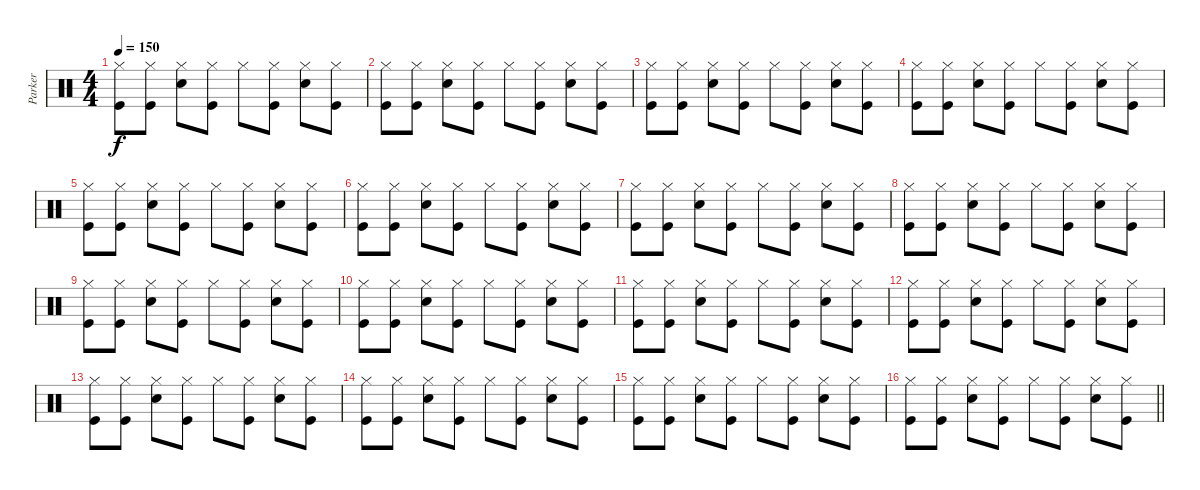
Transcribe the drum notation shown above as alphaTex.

\track ("Parker" "Parker") {instrument percussion}
\staff {score}
\articulation defaults
\ts (4 4)
\tempo 150
\clef neutral
\ks c
("Hi-Hat (closed)" "Kick (hit)").8{dy f} ("Hi-Hat (closed)" "Kick (hit)").8 ("Hi-Hat (closed)" "Electric Snare (hit)").8 ("Hi-Hat (closed)" "Kick (hit)").8 "Hi-Hat (closed)".8 ("Hi-Hat (closed)" "Kick (hit)").8 ("Hi-Hat (closed)" "Electric Snare (hit)").8 ("Hi-Hat (closed)" "Kick (hit)").8 |
("Hi-Hat (closed)" "Kick (hit)").8 ("Hi-Hat (closed)" "Kick (hit)").8 ("Hi-Hat (closed)" "Electric Snare (hit)").8 ("Hi-Hat (closed)" "Kick (hit)").8 "Hi-Hat (closed)".8 ("Hi-Hat (closed)" "Kick (hit)").8 ("Hi-Hat (closed)" "Electric Snare (hit)").8 ("Hi-Hat (closed)" "Kick (hit)").8 |
("Hi-Hat (closed)" "Kick (hit)").8 ("Hi-Hat (closed)" "Kick (hit)").8 ("Hi-Hat (closed)" "Electric Snare (hit)").8 ("Hi-Hat (closed)" "Kick (hit)").8 "Hi-Hat (closed)".8 ("Hi-Hat (closed)" "Kick (hit)").8 ("Hi-Hat (closed)" "Electric Snare (hit)").8 ("Hi-Hat (closed)" "Kick (hit)").8 |
("Hi-Hat (closed)" "Kick (hit)").8 ("Hi-Hat (closed)" "Kick (hit)").8 ("Hi-Hat (closed)" "Electric Snare (hit)").8 ("Hi-Hat (closed)" "Kick (hit)").8 "Hi-Hat (closed)".8 ("Hi-Hat (closed)" "Kick (hit)").8 ("Hi-Hat (closed)" "Electric Snare (hit)").8 ("Hi-Hat (closed)" "Kick (hit)").8 |
("Hi-Hat (closed)" "Kick (hit)").8 ("Hi-Hat (closed)" "Kick (hit)").8 ("Hi-Hat (closed)" "Electric Snare (hit)").8 ("Hi-Hat (closed)" "Kick (hit)").8 "Hi-Hat (closed)".8 ("Hi-Hat (closed)" "Kick (hit)").8 ("Hi-Hat (closed)" "Electric Snare (hit)").8 ("Hi-Hat (closed)" "Kick (hit)").8 |
("Hi-Hat (closed)" "Kick (hit)").8 ("Hi-Hat (closed)" "Kick (hit)").8 ("Hi-Hat (closed)" "Electric Snare (hit)").8 ("Hi-Hat (closed)" "Kick (hit)").8 "Hi-Hat (closed)".8 ("Hi-Hat (closed)" "Kick (hit)").8 ("Hi-Hat (closed)" "Electric Snare (hit)").8 ("Hi-Hat (closed)" "Kick (hit)").8 |
("Hi-Hat (closed)" "Kick (hit)").8 ("Hi-Hat (closed)" "Kick (hit)").8 ("Hi-Hat (closed)" "Electric Snare (hit)").8 ("Hi-Hat (closed)" "Kick (hit)").8 "Hi-Hat (closed)".8 ("Hi-Hat (closed)" "Kick (hit)").8 ("Hi-Hat (closed)" "Electric Snare (hit)").8 ("Hi-Hat (closed)" "Kick (hit)").8 |
("Hi-Hat (closed)" "Kick (hit)").8 ("Hi-Hat (closed)" "Kick (hit)").8 ("Hi-Hat (closed)" "Electric Snare (hit)").8 ("Hi-Hat (closed)" "Kick (hit)").8 "Hi-Hat (closed)".8 ("Hi-Hat (closed)" "Kick (hit)").8 ("Hi-Hat (closed)" "Electric Snare (hit)").8 ("Hi-Hat (closed)" "Kick (hit)").8 |
("Hi-Hat (closed)" "Kick (hit)").8 ("Hi-Hat (closed)" "Kick (hit)").8 ("Hi-Hat (closed)" "Electric Snare (hit)").8 ("Hi-Hat (closed)" "Kick (hit)").8 "Hi-Hat (closed)".8 ("Hi-Hat (closed)" "Kick (hit)").8 ("Hi-Hat (closed)" "Electric Snare (hit)").8 ("Hi-Hat (closed)" "Kick (hit)").8 |
("Hi-Hat (closed)" "Kick (hit)").8 ("Hi-Hat (closed)" "Kick (hit)").8 ("Hi-Hat (closed)" "Electric Snare (hit)").8 ("Hi-Hat (closed)" "Kick (hit)").8 "Hi-Hat (closed)".8 ("Hi-Hat (closed)" "Kick (hit)").8 ("Hi-Hat (closed)" "Electric Snare (hit)").8 ("Hi-Hat (closed)" "Kick (hit)").8 |
("Hi-Hat (closed)" "Kick (hit)").8 ("Hi-Hat (closed)" "Kick (hit)").8 ("Hi-Hat (closed)" "Electric Snare (hit)").8 ("Hi-Hat (closed)" "Kick (hit)").8 "Hi-Hat (closed)".8 ("Hi-Hat (closed)" "Kick (hit)").8 ("Hi-Hat (closed)" "Electric Snare (hit)").8 ("Hi-Hat (closed)" "Kick (hit)").8 |
("Hi-Hat (closed)" "Kick (hit)").8 ("Hi-Hat (closed)" "Kick (hit)").8 ("Hi-Hat (closed)" "Electric Snare (hit)").8 ("Hi-Hat (closed)" "Kick (hit)").8 "Hi-Hat (closed)".8 ("Hi-Hat (closed)" "Kick (hit)").8 ("Hi-Hat (closed)" "Electric Snare (hit)").8 ("Hi-Hat (closed)" "Kick (hit)").8 |
("Hi-Hat (closed)" "Kick (hit)").8 ("Hi-Hat (closed)" "Kick (hit)").8 ("Hi-Hat (closed)" "Electric Snare (hit)").8 ("Hi-Hat (closed)" "Kick (hit)").8 "Hi-Hat (closed)".8 ("Hi-Hat (closed)" "Kick (hit)").8 ("Hi-Hat (closed)" "Electric Snare (hit)").8 ("Hi-Hat (closed)" "Kick (hit)").8 |
("Hi-Hat (closed)" "Kick (hit)").8 ("Hi-Hat (closed)" "Kick (hit)").8 ("Hi-Hat (closed)" "Electric Snare (hit)").8 ("Hi-Hat (closed)" "Kick (hit)").8 "Hi-Hat (closed)".8 ("Hi-Hat (closed)" "Kick (hit)").8 ("Hi-Hat (closed)" "Electric Snare (hit)").8 ("Hi-Hat (closed)" "Kick (hit)").8 |
("Hi-Hat (closed)" "Kick (hit)").8 ("Hi-Hat (closed)" "Kick (hit)").8 ("Hi-Hat (closed)" "Electric Snare (hit)").8 ("Hi-Hat (closed)" "Kick (hit)").8 "Hi-Hat (closed)".8 ("Hi-Hat (closed)" "Kick (hit)").8 ("Hi-Hat (closed)" "Electric Snare (hit)").8 ("Hi-Hat (closed)" "Kick (hit)").8 |
\barLineRight lightlight
("Hi-Hat (closed)" "Kick (hit)").8 ("Hi-Hat (closed)" "Kick (hit)").8 ("Hi-Hat (closed)" "Electric Snare (hit)").8 ("Hi-Hat (closed)" "Kick (hit)").8 "Hi-Hat (closed)".8 ("Hi-Hat (closed)" "Kick (hit)").8 ("Hi-Hat (closed)" "Electric Snare (hit)").8 ("Hi-Hat (closed)" "Kick (hit)").8
